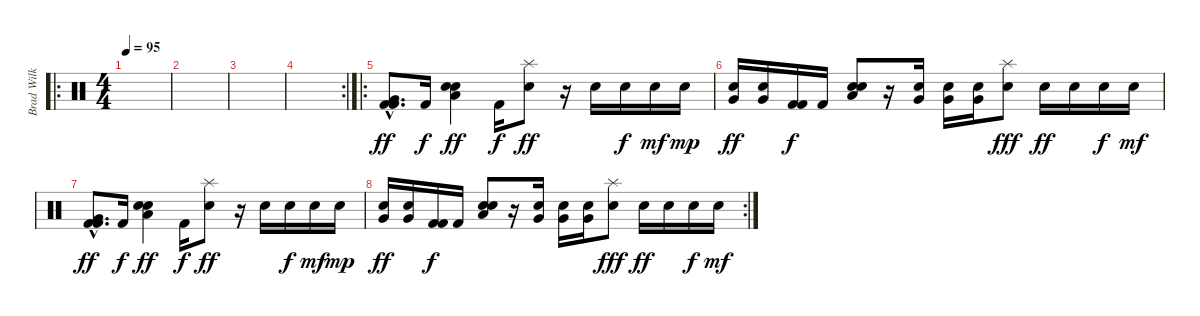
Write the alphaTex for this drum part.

\track ("Brad Wilk" "Brad Wilk") {instrument percussion}
\staff {score}
\articulation defaults
\ro
\ts (4 4)
\tempo 95
\clef neutral
\ks c
|
|
|
\rc 2
|
\ro
("Very Low Tom (hit)"{hac} "Kick (hit) 2"{hac} "Kick (hit) 2"{hac}).8{d dy ff} "Kick (hit) 2".16{dy f} ("Low Tom (hit)" "Snare (hit) 2" "Snare (hit) 2").4{dy ff} "Kick (hit) 2".16{dy f} ("Splash (hit)" "Snare (hit) 2").8{dy ff} r.16 "Snare (hit) 2".16 "Snare (hit) 2".16{dy f} "Snare (hit) 2".16{dy mf} "Snare (hit) 2".16{dy mp} |
("Very Low Tom (hit)" "Snare (hit) 2").16{dy ff} ("Very Low Tom (hit)" "Snare (hit) 2").16 ("Kick (hit) 2" "Kick (hit) 2").16{dy f} "Kick (hit) 2".16 ("Low Tom (hit)" "Snare (hit) 2" "Snare (hit) 2").8 r.16 ("Very Low Tom (hit)" "Snare (hit) 2").16 ("Very Low Tom (hit)" "Snare (hit) 2").16 ("Very Low Tom (hit)" "Snare (hit) 2").16 ("Splash (hit)" "Snare (hit) 2").8{dy fff} "Snare (hit) 2".16{dy ff} "Snare (hit) 2".16 "Snare (hit) 2".16{dy f} "Snare (hit) 2".16{dy mf} |
("Very Low Tom (hit)"{hac} "Kick (hit) 2"{hac} "Kick (hit) 2"{hac}).8{d dy ff} "Kick (hit) 2".16{dy f} ("Low Tom (hit)" "Snare (hit) 2" "Snare (hit) 2").4{dy ff} "Kick (hit) 2".16{dy f} ("Splash (hit)" "Snare (hit) 2").8{dy ff} r.16 "Snare (hit) 2".16 "Snare (hit) 2".16{dy f} "Snare (hit) 2".16{dy mf} "Snare (hit) 2".16{dy mp} |
\rc 2
("Very Low Tom (hit)" "Snare (hit) 2").16{dy ff} ("Very Low Tom (hit)" "Snare (hit) 2").16 ("Kick (hit) 2" "Kick (hit) 2").16{dy f} "Kick (hit) 2".16 ("Low Tom (hit)" "Snare (hit) 2" "Snare (hit) 2").8 r.16 ("Very Low Tom (hit)" "Snare (hit) 2").16 ("Very Low Tom (hit)" "Snare (hit) 2").16 ("Very Low Tom (hit)" "Snare (hit) 2").16 ("Splash (hit)" "Snare (hit) 2").8{dy fff} "Snare (hit) 2".16{dy ff} "Snare (hit) 2".16 "Snare (hit) 2".16{dy f} "Snare (hit) 2".16{dy mf}
